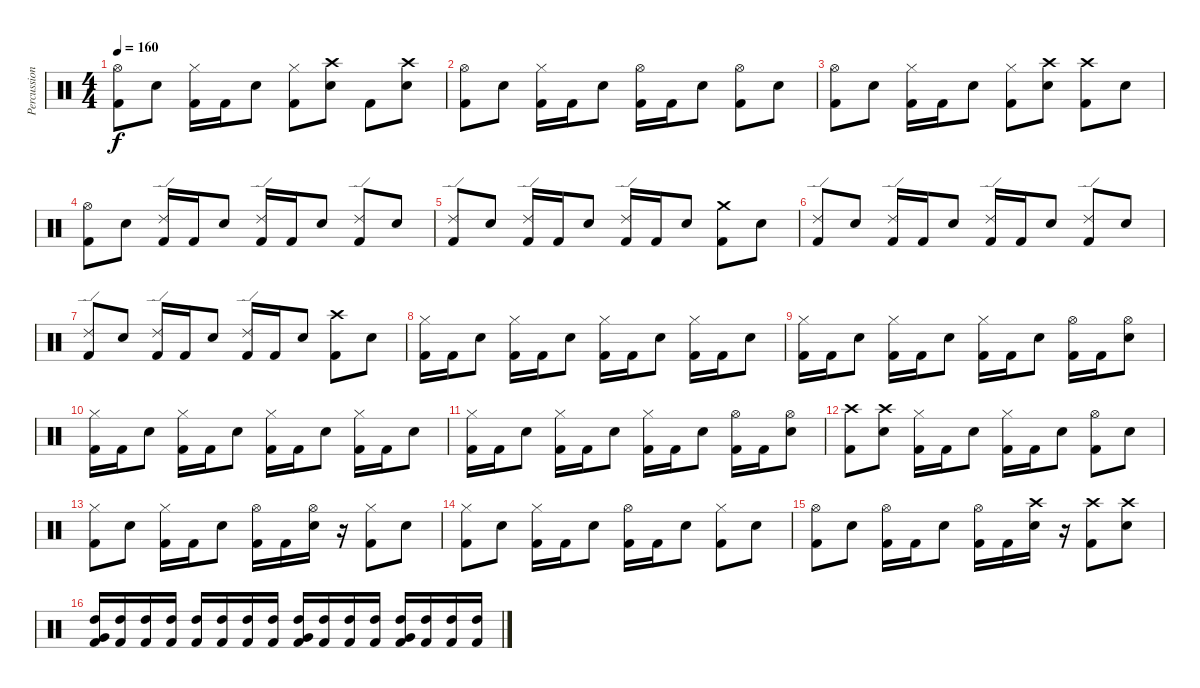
\track ("Percussion" "Percussion") {instrument percussion}
\staff {score}
\articulation defaults
\ts (4 4)
\tempo 160
\clef neutral
\ks c
("Hi-Hat (open)" "Kick (hit) 2").8{dy f} "Electric Snare (hit)".8 ("Hi-Hat (closed)" "Kick (hit) 2").16 "Kick (hit) 2".16 "Electric Snare (hit)".8 ("Hi-Hat (closed)" "Kick (hit) 2").8 ("Crash high (hit)" "Electric Snare (hit)").8 "Kick (hit) 2".8 ("Crash high (hit)" "Electric Snare (hit)").8 |
("Hi-Hat (open)" "Kick (hit) 2").8 "Electric Snare (hit)".8 ("Hi-Hat (closed)" "Kick (hit) 2").16 "Kick (hit) 2".16 "Electric Snare (hit)".8 ("Hi-Hat (open)" "Kick (hit) 2").16 "Kick (hit) 2".16 "Electric Snare (hit)".8 ("Hi-Hat (open)" "Kick (hit) 2").8 "Electric Snare (hit)".8 |
("Hi-Hat (open)" "Kick (hit) 2").8 "Electric Snare (hit)".8 ("Hi-Hat (closed)" "Kick (hit) 2").16 "Kick (hit) 2".16 "Electric Snare (hit)".8 ("Hi-Hat (closed)" "Kick (hit) 2").8 ("Crash high (hit)" "Electric Snare (hit)").8 ("Crash high (hit)" "Kick (hit) 2").8 "Electric Snare (hit)".8 |
("Hi-Hat (open)" "Kick (hit) 2").8 "Electric Snare (hit)".8 ("Ride (edge) 2" "Kick (hit) 2").16 "Kick (hit) 2".16 "Electric Snare (hit)".8 ("Ride (edge) 2" "Kick (hit) 2").16 "Kick (hit) 2".16 "Electric Snare (hit)".8 ("Ride (edge) 2" "Kick (hit) 2").8 "Electric Snare (hit)".8 |
("Ride (edge) 2" "Kick (hit) 2").8 "Electric Snare (hit)".8 ("Ride (edge) 2" "Kick (hit) 2").16 "Kick (hit) 2".16 "Electric Snare (hit)".8 ("Ride (edge) 2" "Kick (hit) 2").16 "Kick (hit) 2".16 "Electric Snare (hit)".8 ("Crash medium (hit)" "Kick (hit) 2").8 "Electric Snare (hit)".8 |
("Ride (edge) 2" "Kick (hit) 2").8 "Electric Snare (hit)".8 ("Ride (edge) 2" "Kick (hit) 2").16 "Kick (hit) 2".16 "Electric Snare (hit)".8 ("Ride (edge) 2" "Kick (hit) 2").16 "Kick (hit) 2".16 "Electric Snare (hit)".8 ("Ride (edge) 2" "Kick (hit) 2").8 "Electric Snare (hit)".8 |
("Ride (edge) 2" "Kick (hit) 2").8 "Electric Snare (hit)".8 ("Ride (edge) 2" "Kick (hit) 2").16 "Kick (hit) 2".16 "Electric Snare (hit)".8 ("Ride (edge) 2" "Kick (hit) 2").16 "Kick (hit) 2".16 "Electric Snare (hit)".8 ("Crash high (hit)" "Kick (hit) 2").8 "Electric Snare (hit)".8 |
("Hi-Hat (closed)" "Kick (hit) 2").16 "Kick (hit) 2".16 "Electric Snare (hit)".8 ("Hi-Hat (closed)" "Kick (hit) 2").16 "Kick (hit) 2".16 "Electric Snare (hit)".8 ("Hi-Hat (closed)" "Kick (hit) 2").16 "Kick (hit) 2".16 "Electric Snare (hit)".8 ("Hi-Hat (closed)" "Kick (hit) 2").16 "Kick (hit) 2".16 "Electric Snare (hit)".8 |
("Hi-Hat (closed)" "Kick (hit) 2").16 "Kick (hit) 2".16 "Electric Snare (hit)".8 ("Hi-Hat (closed)" "Kick (hit) 2").16 "Kick (hit) 2".16 "Electric Snare (hit)".8 ("Hi-Hat (closed)" "Kick (hit) 2").16 "Kick (hit) 2".16 "Electric Snare (hit)".8 ("Hi-Hat (open)" "Kick (hit) 2").16 "Kick (hit) 2".16 ("Hi-Hat (open)" "Electric Snare (hit)").8 |
("Hi-Hat (closed)" "Kick (hit) 2").16 "Kick (hit) 2".16 "Electric Snare (hit)".8 ("Hi-Hat (closed)" "Kick (hit) 2").16 "Kick (hit) 2".16 "Electric Snare (hit)".8 ("Hi-Hat (closed)" "Kick (hit) 2").16 "Kick (hit) 2".16 "Electric Snare (hit)".8 ("Hi-Hat (closed)" "Kick (hit) 2").16 "Kick (hit) 2".16 "Electric Snare (hit)".8 |
("Hi-Hat (closed)" "Kick (hit) 2").16 "Kick (hit) 2".16 "Electric Snare (hit)".8 ("Hi-Hat (closed)" "Kick (hit) 2").16 "Kick (hit) 2".16 "Electric Snare (hit)".8 ("Hi-Hat (closed)" "Kick (hit) 2").16 "Kick (hit) 2".16 "Electric Snare (hit)".8 ("Hi-Hat (open)" "Kick (hit) 2").16 "Kick (hit) 2".16 ("Hi-Hat (open)" "Electric Snare (hit)").8 |
("Crash high (hit)" "Kick (hit) 2").8 ("Crash high (hit)" "Electric Snare (hit)").8 ("Hi-Hat (closed)" "Kick (hit) 2").16 "Kick (hit) 2".16 "Electric Snare (hit)".8 ("Hi-Hat (closed)" "Kick (hit) 2").16 "Kick (hit) 2".16 "Electric Snare (hit)".8 ("Hi-Hat (open)" "Kick (hit) 2").8 "Electric Snare (hit)".8 |
("Hi-Hat (closed)" "Kick (hit) 2").8 "Electric Snare (hit)".8 ("Hi-Hat (closed)" "Kick (hit) 2").16 "Kick (hit) 2".16 "Electric Snare (hit)".8 ("Hi-Hat (open)" "Kick (hit) 2").16 "Kick (hit) 2".16 ("Hi-Hat (open)" "Electric Snare (hit)").16 r.16 ("Hi-Hat (closed)" "Kick (hit) 2").8 "Electric Snare (hit)".8 |
("Hi-Hat (closed)" "Kick (hit) 2").8 "Electric Snare (hit)".8 ("Hi-Hat (closed)" "Kick (hit) 2").16 "Kick (hit) 2".16 "Electric Snare (hit)".8 ("Hi-Hat (open)" "Kick (hit) 2").16 "Kick (hit) 2".16 "Electric Snare (hit)".8 ("Hi-Hat (closed)" "Kick (hit) 2").8 "Electric Snare (hit)".8 |
("Hi-Hat (open)" "Kick (hit) 2").8 "Electric Snare (hit)".8 ("Hi-Hat (open)" "Kick (hit) 2").16 "Kick (hit) 2".16 "Electric Snare (hit)".8 ("Hi-Hat (open)" "Kick (hit) 2").16 "Kick (hit) 2".16 ("Crash high (hit)" "Electric Snare (hit)").16 r.16 ("Crash high (hit)" "Kick (hit) 2").8 ("Crash high (hit)" "Electric Snare (hit)").8 |
("Very Low Tom (hit)" "High Tom (hit)" "Kick (hit) 2").16 ("High Tom (hit)" "Kick (hit) 2").16 ("High Tom (hit)" "Kick (hit) 2").16 ("High Tom (hit)" "Kick (hit) 2").16 ("High Tom (hit)" "Kick (hit) 2").16 ("High Tom (hit)" "Kick (hit) 2").16 ("High Tom (hit)" "Kick (hit) 2").16 ("High Tom (hit)" "Kick (hit) 2").16 ("Very Low Tom (hit)" "High Tom (hit)" "Kick (hit) 2").16 ("High Tom (hit)" "Kick (hit) 2").16 ("High Tom (hit)" "Kick (hit) 2").16 ("High Tom (hit)" "Kick (hit) 2").16 ("Very Low Tom (hit)" "High Tom (hit)" "Kick (hit) 2").16 ("High Tom (hit)" "Kick (hit) 2").16 ("High Tom (hit)" "Kick (hit) 2").16 ("High Tom (hit)" "Kick (hit) 2").16
